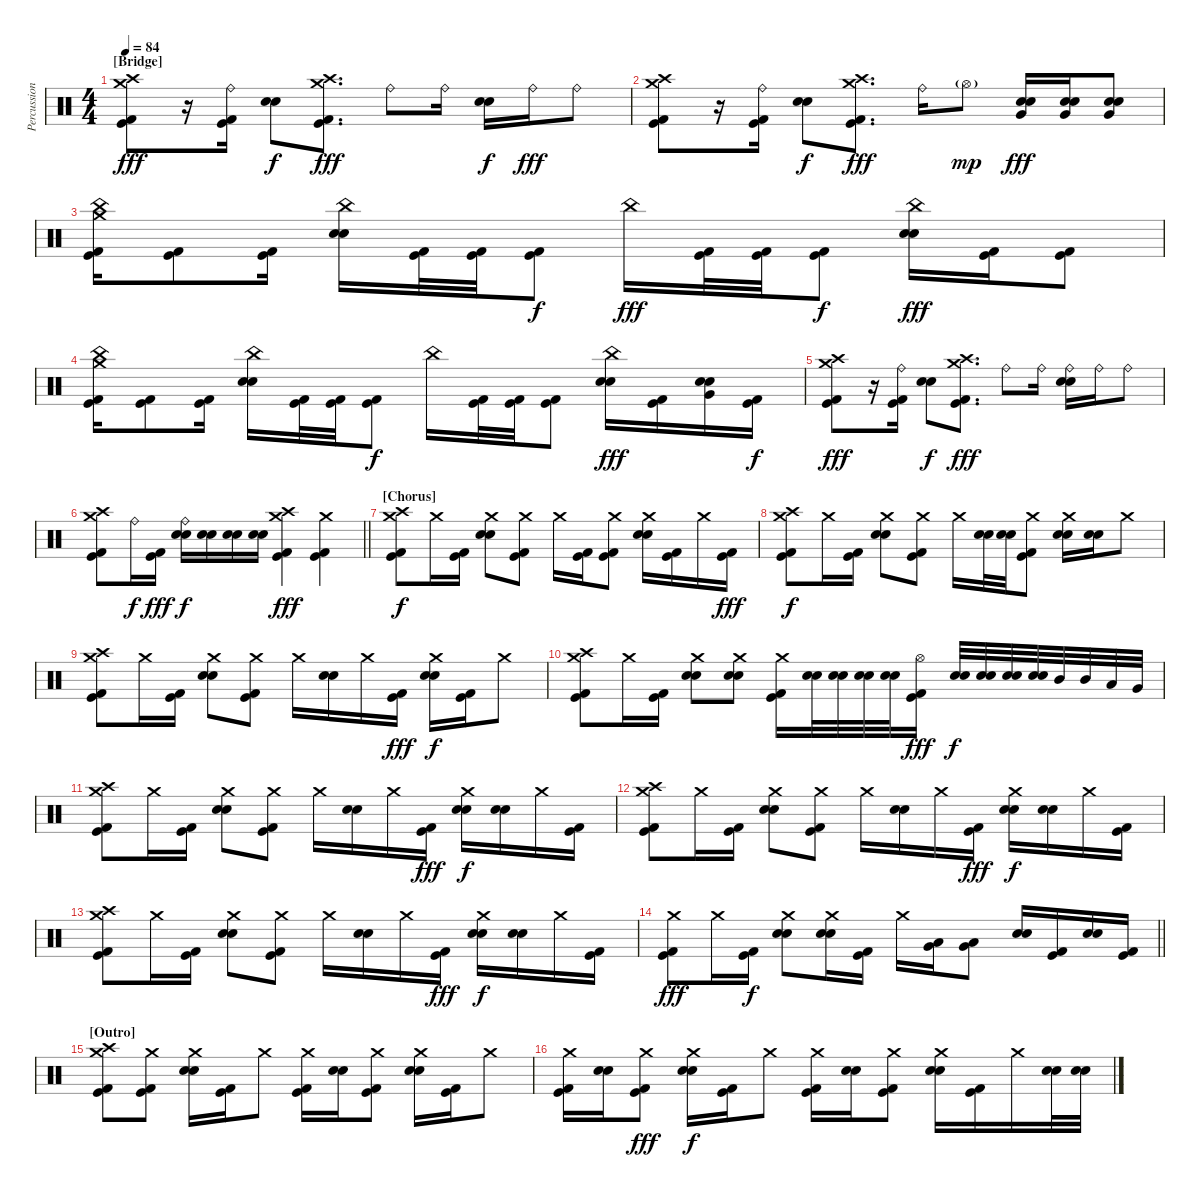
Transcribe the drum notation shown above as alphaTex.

\track ("Percussion" "Percussion") {instrument percussion}
\staff {score}
\articulation defaults
\ts (4 4)
\section ("" "[Bridge]")
\tempo 84
\clef neutral
\ks c
("Crash high (hit)" "Crash medium (hit)" "Kick (hit)" "Kick (hit) 2").8{dy fff} r.16 ("Ride (bell)" "Kick (hit)" "Kick (hit) 2").16 ("Electric Snare (hit)" "Snare (hit) 2").8{dy f} ("Crash medium (hit)" "Crash high (hit)" "Kick (hit)" "Kick (hit) 2").8{d dy fff} "Ride (bell)".8 "Ride (bell)".16 ("Electric Snare (hit)" "Snare (hit) 2").16{dy f} "Ride (bell)".16{dy fff} "Ride (bell)".8 |
("Crash high (hit)" "Crash medium (hit)" "Kick (hit)" "Kick (hit) 2").8 r.16 ("Ride (bell)" "Kick (hit)" "Kick (hit) 2").16 ("Electric Snare (hit)" "Snare (hit) 2").8{dy f} ("Crash medium (hit)" "Crash high (hit)" "Kick (hit)" "Kick (hit) 2").8{d dy fff} "Ride (bell)".16 "Hi-Hat (open)"{g}.8{dy mp} ("Electric Snare (hit)" "Snare (hit) 2" "Very Low Tom (hit)").16{dy fff} ("Electric Snare (hit)" "Snare (hit) 2" "Very Low Tom (hit)").16 ("Electric Snare (hit)" "Snare (hit) 2" "Very Low Tom (hit)").8 |
("Crash medium (hit)" "China (hit)" "Kick (hit)" "Kick (hit) 2").16 ("Kick (hit)" "Kick (hit) 2").8 ("Kick (hit)" "Kick (hit) 2").16 ("China (hit)" "Electric Snare (hit)" "Snare (hit) 2").16 ("Kick (hit)" "Kick (hit) 2").32 ("Kick (hit)" "Kick (hit) 2").32 ("Kick (hit)" "Kick (hit) 2").8{dy f} "China (hit)".16{dy fff} ("Kick (hit)" "Kick (hit) 2").32 ("Kick (hit)" "Kick (hit) 2").32 ("Kick (hit)" "Kick (hit) 2").8{dy f} ("China (hit)" "Electric Snare (hit)" "Snare (hit) 2").16{dy fff} ("Kick (hit)" "Kick (hit) 2").16 ("Kick (hit)" "Kick (hit) 2").8 |
("Crash medium (hit)" "China (hit)" "Kick (hit)" "Kick (hit) 2").16 ("Kick (hit)" "Kick (hit) 2").8 ("Kick (hit)" "Kick (hit) 2").16 ("China (hit)" "Electric Snare (hit)" "Snare (hit) 2").16 ("Kick (hit)" "Kick (hit) 2").32 ("Kick (hit)" "Kick (hit) 2").32 ("Kick (hit)" "Kick (hit) 2").8{dy f} "China (hit)".16 ("Kick (hit)" "Kick (hit) 2").32 ("Kick (hit)" "Kick (hit) 2").32 ("Kick (hit)" "Kick (hit) 2").8 ("China (hit)" "Electric Snare (hit)" "Snare (hit) 2").16{dy fff} ("Kick (hit)" "Kick (hit) 2").16 ("Very Low Tom (hit)" "Electric Snare (hit)" "Snare (hit) 2").16 ("Kick (hit)" "Kick (hit) 2").16{dy f} |
("Crash high (hit)" "Crash medium (hit)" "Kick (hit)" "Kick (hit) 2").8{dy fff} r.16 ("Ride (bell)" "Kick (hit)" "Kick (hit) 2").16 ("Electric Snare (hit)" "Snare (hit) 2").8{dy f} ("Crash medium (hit)" "Crash high (hit)" "Kick (hit)" "Kick (hit) 2").8{d dy fff} "Ride (bell)".8 "Ride (bell)".16 ("Ride (bell)" "Electric Snare (hit)" "Snare (hit) 2").16 "Ride (bell)".16 "Ride (bell)".8 |
\barLineRight lightlight
("Crash high (hit)" "Crash medium (hit)" "Kick (hit)" "Kick (hit) 2").8 "Ride (bell)".16{dy f} ("Kick (hit)" "Kick (hit) 2").16{dy fff} ("Ride (bell)" "Electric Snare (hit)" "Snare (hit) 2").16{dy f} ("Electric Snare (hit)" "Snare (hit) 2").16 ("Electric Snare (hit)" "Snare (hit) 2").16 ("Electric Snare (hit)" "Snare (hit) 2").16 ("Crash medium (hit)" "Crash high (hit)" "Kick (hit)" "Kick (hit) 2").4{dy fff} ("Crash medium (hit)" "Kick (hit)" "Kick (hit) 2").4 |
\section ("" "[Chorus]")
("Crash high (hit)" "Crash medium (hit)" "Kick (hit)" "Kick (hit) 2").8{dy f} "Crash medium (hit)".16 ("Kick (hit)" "Kick (hit) 2").16 ("Crash medium (hit)" "Electric Snare (hit)" "Snare (hit) 2").8 ("Crash medium (hit)" "Kick (hit)" "Kick (hit) 2").8 "Crash medium (hit)".16 ("Kick (hit)" "Kick (hit) 2").16 ("Crash medium (hit)" "Kick (hit)" "Kick (hit) 2").8 ("Crash medium (hit)" "Electric Snare (hit)" "Snare (hit) 2").16 ("Kick (hit)" "Kick (hit) 2").16 "Crash medium (hit)".16 ("Kick (hit)" "Kick (hit) 2").16{dy fff} |
("Crash high (hit)" "Crash medium (hit)" "Kick (hit)" "Kick (hit) 2").8{dy f} "Crash medium (hit)".16 ("Kick (hit)" "Kick (hit) 2").16 ("Crash medium (hit)" "Electric Snare (hit)" "Snare (hit) 2").8 ("Crash medium (hit)" "Kick (hit)" "Kick (hit) 2").8 "Crash medium (hit)".16 ("Electric Snare (hit)" "Snare (hit) 2").32 ("Electric Snare (hit)" "Snare (hit) 2").32 ("Crash medium (hit)" "Kick (hit)" "Kick (hit) 2").8 ("Crash medium (hit)" "Electric Snare (hit)" "Snare (hit) 2").16 ("Electric Snare (hit)" "Snare (hit) 2").16 "Crash medium (hit)".8 |
("Crash high (hit)" "Crash medium (hit)" "Kick (hit)" "Kick (hit) 2").8 "Crash medium (hit)".16 ("Kick (hit)" "Kick (hit) 2").16 ("Crash medium (hit)" "Electric Snare (hit)" "Snare (hit) 2").8 ("Crash medium (hit)" "Kick (hit)" "Kick (hit) 2").8 "Crash medium (hit)".16 ("Electric Snare (hit)" "Snare (hit) 2").16 "Crash medium (hit)".16 ("Kick (hit)" "Kick (hit) 2").16{dy fff} ("Crash medium (hit)" "Electric Snare (hit)" "Snare (hit) 2").16{dy f} ("Kick (hit)" "Kick (hit) 2").16 "Crash medium (hit)".8 |
("Crash high (hit)" "Crash medium (hit)" "Kick (hit)" "Kick (hit) 2").8 "Crash medium (hit)".16 ("Kick (hit)" "Kick (hit) 2").16 ("Crash medium (hit)" "Electric Snare (hit)" "Snare (hit) 2").8 ("Crash medium (hit)" "Electric Snare (hit)" "Snare (hit) 2").8 ("Crash medium (hit)" "Kick (hit)" "Kick (hit) 2").16 ("Electric Snare (hit)" "Snare (hit) 2").32 ("Electric Snare (hit)" "Snare (hit) 2").32 ("Electric Snare (hit)" "Snare (hit) 2").32 ("Electric Snare (hit)" "Snare (hit) 2").32 ("Hi-Hat (open)" "Kick (hit)" "Kick (hit) 2").16{dy fff} ("Electric Snare (hit)" "Snare (hit) 2").32{dy f} ("Electric Snare (hit)" "Snare (hit) 2").32 ("Electric Snare (hit)" "Snare (hit) 2").32 ("Electric Snare (hit)" "Snare (hit) 2").32 "Mid Tom (hit)".32 "Mid Tom (hit)".32 "Low Tom (hit)".32 "Very Low Tom (hit)".32 |
("Crash high (hit)" "Crash medium (hit)" "Kick (hit)" "Kick (hit) 2").8 "Crash medium (hit)".16 ("Kick (hit)" "Kick (hit) 2").16 ("Crash medium (hit)" "Electric Snare (hit)" "Snare (hit) 2").8 ("Crash medium (hit)" "Kick (hit)" "Kick (hit) 2").8 "Crash medium (hit)".16 ("Electric Snare (hit)" "Snare (hit) 2").16 "Crash medium (hit)".16 ("Kick (hit)" "Kick (hit) 2").16{dy fff} ("Crash medium (hit)" "Electric Snare (hit)" "Snare (hit) 2").16{dy f} ("Electric Snare (hit)" "Snare (hit) 2").16 "Crash medium (hit)".16 ("Kick (hit)" "Kick (hit) 2").16 |
("Crash high (hit)" "Crash medium (hit)" "Kick (hit)" "Kick (hit) 2").8 "Crash medium (hit)".16 ("Kick (hit)" "Kick (hit) 2").16 ("Crash medium (hit)" "Electric Snare (hit)" "Snare (hit) 2").8 ("Crash medium (hit)" "Kick (hit)" "Kick (hit) 2").8 "Crash medium (hit)".16 ("Electric Snare (hit)" "Snare (hit) 2").16 "Crash medium (hit)".16 ("Kick (hit)" "Kick (hit) 2").16{dy fff} ("Crash medium (hit)" "Electric Snare (hit)" "Snare (hit) 2").16{dy f} ("Electric Snare (hit)" "Snare (hit) 2").16 "Crash medium (hit)".16 ("Kick (hit)" "Kick (hit) 2").16 |
("Crash high (hit)" "Crash medium (hit)" "Kick (hit)" "Kick (hit) 2").8 "Crash medium (hit)".16 ("Kick (hit)" "Kick (hit) 2").16 ("Crash medium (hit)" "Electric Snare (hit)" "Snare (hit) 2").8 ("Crash medium (hit)" "Kick (hit)" "Kick (hit) 2").8 "Crash medium (hit)".16 ("Electric Snare (hit)" "Snare (hit) 2").16 "Crash medium (hit)".16 ("Kick (hit)" "Kick (hit) 2").16{dy fff} ("Crash medium (hit)" "Electric Snare (hit)" "Snare (hit) 2").16{dy f} ("Electric Snare (hit)" "Snare (hit) 2").16 "Crash medium (hit)".16 ("Kick (hit)" "Kick (hit) 2").16 |
\barLineRight lightlight
("Crash medium (hit)" "Kick (hit)" "Kick (hit) 2").8{dy fff} "Crash medium (hit)".16 ("Kick (hit)" "Kick (hit) 2").16{dy f} ("Crash medium (hit)" "Electric Snare (hit)" "Snare (hit) 2").8 ("Crash medium (hit)" "Electric Snare (hit)" "Snare (hit) 2").16 ("Kick (hit)" "Kick (hit) 2").16 "Crash medium (hit)".16 ("Low Tom (hit)" "Very Low Tom (hit)").16 ("Very Low Tom (hit)" "Low Floor Tom (hit)").8 ("Electric Snare (hit)" "Snare (hit) 2").16 ("Kick (hit)" "Kick (hit) 2").16 ("Electric Snare (hit)" "Snare (hit) 2").16 ("Kick (hit)" "Kick (hit) 2").16 |
\section ("" "[Outro]")
("Crash medium (hit)" "Crash high (hit)" "Kick (hit)" "Kick (hit) 2").8 ("Crash medium (hit)" "Kick (hit)" "Kick (hit) 2").8 ("Crash medium (hit)" "Electric Snare (hit)" "Snare (hit) 2").16 ("Kick (hit)" "Kick (hit) 2").16 "Crash medium (hit)".8 ("Crash medium (hit)" "Kick (hit)" "Kick (hit) 2").16 ("Electric Snare (hit)" "Snare (hit) 2").16 ("Crash medium (hit)" "Kick (hit)" "Kick (hit) 2").8 ("Crash medium (hit)" "Electric Snare (hit)" "Snare (hit) 2").16 ("Kick (hit)" "Kick (hit) 2").16 "Crash medium (hit)".8 |
("Crash medium (hit)" "Kick (hit)" "Kick (hit) 2").16 ("Electric Snare (hit)" "Snare (hit) 2").16 ("Crash medium (hit)" "Kick (hit)" "Kick (hit) 2").8{dy fff} ("Crash medium (hit)" "Electric Snare (hit)" "Snare (hit) 2").16{dy f} ("Kick (hit)" "Kick (hit) 2").16 "Crash medium (hit)".8 ("Crash medium (hit)" "Kick (hit)" "Kick (hit) 2").16 ("Electric Snare (hit)" "Snare (hit) 2").16 ("Crash medium (hit)" "Kick (hit)" "Kick (hit) 2").8 ("Crash medium (hit)" "Electric Snare (hit)" "Snare (hit) 2").16 ("Kick (hit)" "Kick (hit) 2").16 "Crash medium (hit)".16 ("Electric Snare (hit)" "Snare (hit) 2").32 ("Electric Snare (hit)" "Snare (hit) 2").32
